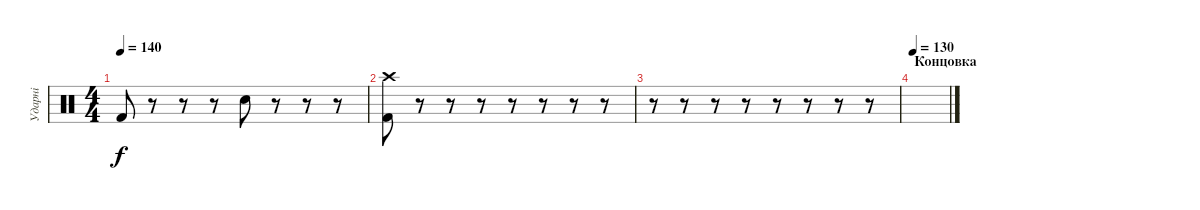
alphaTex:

\track ("Ударні" "Ударні") {instrument percussion}
\staff {score}
\articulation defaults
\ts (4 4)
\tempo 140
\clef neutral
\ks c "Kick (hit) 2".8{dy f}
r.8 r.8 r.8 "Snare (hit) 2".8 r.8 r.8 r.8 |
("Kick (hit) 2" "Crash high (hit)").8 r.8 r.8 r.8 r.8 r.8 r.8 r.8 |
r.8 r.8 r.8 r.8 r.8 r.8 r.8 r.8 |
\section ("" "Концовка")
\tempo 130
